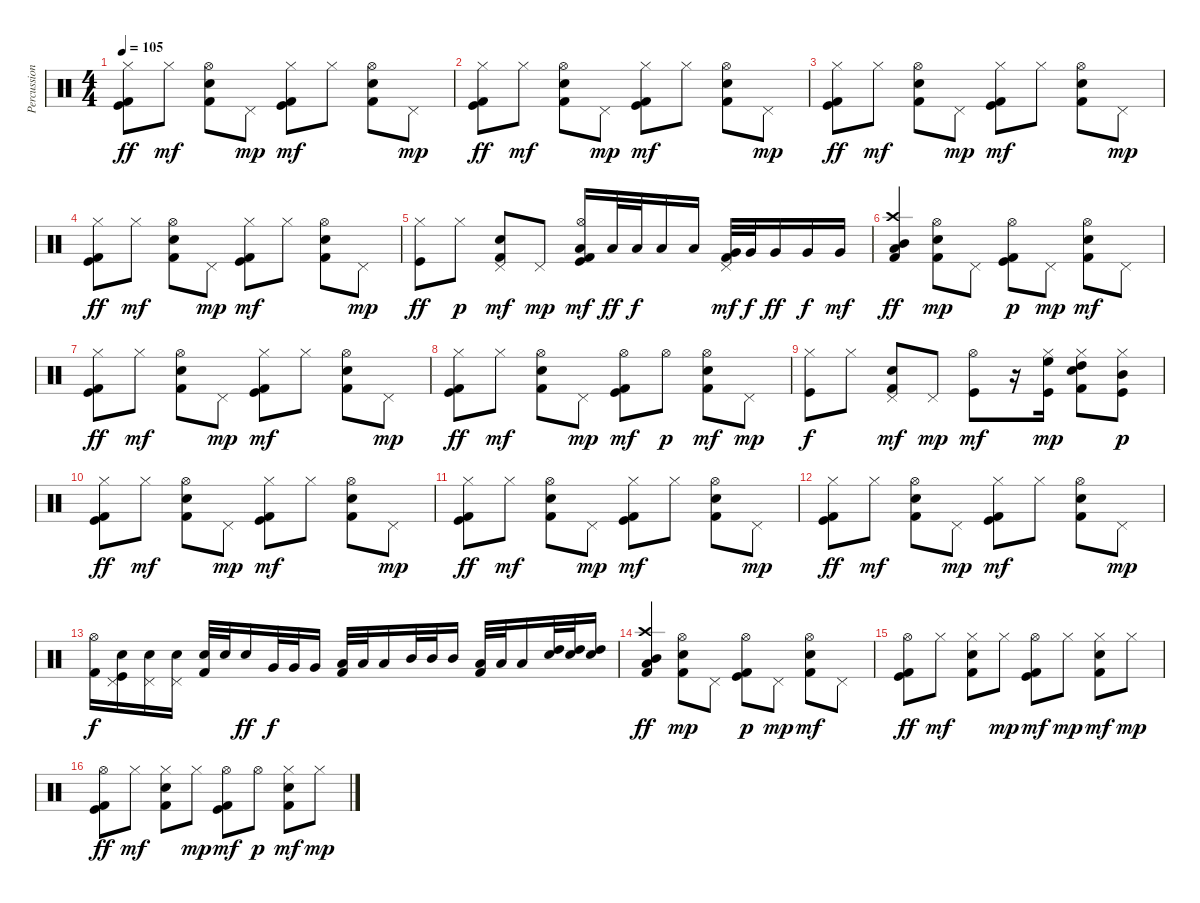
\track ("Percussion" "Percussion") {instrument percussion}
\staff {score}
\articulation defaults
\ts (4 4)
\tempo 105
\clef neutral
\ks c
("Hi-Hat (closed)" "Kick (hit)" "Kick (hit) 2").8{dy ff} "Hi-Hat (closed)".8{dy mf} ("Electric Snare (hit)" "Hi-Hat (open)" "Kick (hit) 2").8 "Pedal Hi-Hat (hit)".8{dy mp} ("Hi-Hat (closed)" "Kick (hit)" "Kick (hit) 2").8{dy mf} "Hi-Hat (closed)".8 ("Electric Snare (hit)" "Hi-Hat (open)" "Kick (hit) 2").8 "Pedal Hi-Hat (hit)".8{dy mp} |
("Hi-Hat (closed)" "Kick (hit)" "Kick (hit) 2").8{dy ff} "Hi-Hat (closed)".8{dy mf} ("Electric Snare (hit)" "Hi-Hat (open)" "Kick (hit) 2").8 "Pedal Hi-Hat (hit)".8{dy mp} ("Hi-Hat (closed)" "Kick (hit)" "Kick (hit) 2").8{dy mf} "Hi-Hat (closed)".8 ("Electric Snare (hit)" "Hi-Hat (open)" "Kick (hit) 2").8 "Pedal Hi-Hat (hit)".8{dy mp} |
("Hi-Hat (closed)" "Kick (hit)" "Kick (hit) 2").8{dy ff} "Hi-Hat (closed)".8{dy mf} ("Electric Snare (hit)" "Hi-Hat (open)" "Kick (hit) 2").8 "Pedal Hi-Hat (hit)".8{dy mp} ("Hi-Hat (closed)" "Kick (hit)" "Kick (hit) 2").8{dy mf} "Hi-Hat (closed)".8 ("Electric Snare (hit)" "Hi-Hat (open)" "Kick (hit) 2").8 "Pedal Hi-Hat (hit)".8{dy mp} |
("Hi-Hat (closed)" "Kick (hit)" "Kick (hit) 2").8{dy ff} "Hi-Hat (closed)".8{dy mf} ("Electric Snare (hit)" "Hi-Hat (open)" "Kick (hit) 2").8 "Pedal Hi-Hat (hit)".8{dy mp} ("Hi-Hat (closed)" "Kick (hit)" "Kick (hit) 2").8{dy mf} "Hi-Hat (closed)".8 ("Electric Snare (hit)" "Hi-Hat (open)" "Kick (hit) 2").8 "Pedal Hi-Hat (hit)".8{dy mp} |
("Hi-Hat (closed)" "Kick (hit)").8{dy ff} "Hi-Hat (closed)".8{dy p} ("Electric Snare (hit)" "Pedal Hi-Hat (hit)" "Kick (hit) 2").8{dy mf} "Pedal Hi-Hat (hit)".8{dy mp} ("Low Tom (hit)" "Hi-Hat (open)" "Kick (hit)" "Kick (hit) 2").16{dy mf} "Low Tom (hit)".32{dy ff} "Low Tom (hit)".32{dy f} "Low Tom (hit)".16 "Low Tom (hit)".16 ("Very Low Tom (hit)" "Pedal Hi-Hat (hit)" "Kick (hit) 2").32{dy mf} "Very Low Tom (hit)".32{dy f} "Very Low Tom (hit)".16{dy ff} "Very Low Tom (hit)".16{dy f} "Very Low Tom (hit)".16{dy mf} |
("Crash high (hit)" "Mid Tom (hit)" "Low Floor Tom (hit)" "Kick (hit) 2").4{dy ff} ("Electric Snare (hit)" "Hi-Hat (open)" "Kick (hit) 2").8{dy mp} "Pedal Hi-Hat (hit)".8 ("Hi-Hat (open)" "Kick (hit)" "Kick (hit) 2").8{dy p} "Pedal Hi-Hat (hit)".8{dy mp} ("Electric Snare (hit)" "Hi-Hat (open)" "Kick (hit) 2").8{dy mf} "Pedal Hi-Hat (hit)".8 |
("Hi-Hat (closed)" "Kick (hit)" "Kick (hit) 2").8{dy ff} "Hi-Hat (closed)".8{dy mf} ("Electric Snare (hit)" "Hi-Hat (open)" "Kick (hit) 2").8 "Pedal Hi-Hat (hit)".8{dy mp} ("Hi-Hat (closed)" "Kick (hit)" "Kick (hit) 2").8{dy mf} "Hi-Hat (closed)".8 ("Electric Snare (hit)" "Hi-Hat (open)" "Kick (hit) 2").8 "Pedal Hi-Hat (hit)".8{dy mp} |
("Hi-Hat (closed)" "Kick (hit)" "Kick (hit) 2").8{dy ff} "Hi-Hat (closed)".8{dy mf} ("Electric Snare (hit)" "Hi-Hat (open)" "Kick (hit) 2").8 "Pedal Hi-Hat (hit)".8{dy mp} ("Hi-Hat (open)" "Kick (hit)" "Kick (hit) 2").8{dy mf} "Hi-Hat (open)".8{dy p} ("Electric Snare (hit)" "Hi-Hat (open)" "Kick (hit) 2").8{dy mf} "Pedal Hi-Hat (hit)".8{dy mp} |
("Hi-Hat (closed)" "Kick (hit)").8{dy f} "Hi-Hat (closed)".8 ("Electric Snare (hit)" "Pedal Hi-Hat (hit)" "Kick (hit) 2").8{dy mf} "Pedal Hi-Hat (hit)".8{dy mp} ("Hi-Hat (open)" "Kick (hit)").8{dy mf} r.16 ("Hi-Hat (closed)" "High Floor Tom (hit)" "Kick (hit)").16{dy mp} ("Electric Snare (hit)" "Hi-Hat (closed)" "High Tom (hit)" "Kick (hit) 2").8 ("Hi-Hat (closed)" "Mid Tom (hit)" "Kick (hit)").8{dy p} |
("Hi-Hat (closed)" "Kick (hit)" "Kick (hit) 2").8{dy ff} "Hi-Hat (closed)".8{dy mf} ("Electric Snare (hit)" "Hi-Hat (open)" "Kick (hit) 2").8 "Pedal Hi-Hat (hit)".8{dy mp} ("Hi-Hat (closed)" "Kick (hit)" "Kick (hit) 2").8{dy mf} "Hi-Hat (closed)".8 ("Electric Snare (hit)" "Hi-Hat (open)" "Kick (hit) 2").8 "Pedal Hi-Hat (hit)".8{dy mp} |
("Hi-Hat (closed)" "Kick (hit)" "Kick (hit) 2").8{dy ff} "Hi-Hat (closed)".8{dy mf} ("Electric Snare (hit)" "Hi-Hat (open)" "Kick (hit) 2").8 "Pedal Hi-Hat (hit)".8{dy mp} ("Hi-Hat (closed)" "Kick (hit)" "Kick (hit) 2").8{dy mf} "Hi-Hat (closed)".8 ("Electric Snare (hit)" "Hi-Hat (open)" "Kick (hit) 2").8 "Pedal Hi-Hat (hit)".8{dy mp} |
("Hi-Hat (closed)" "Kick (hit)" "Kick (hit) 2").8{dy ff} "Hi-Hat (closed)".8{dy mf} ("Electric Snare (hit)" "Hi-Hat (open)" "Kick (hit) 2").8 "Pedal Hi-Hat (hit)".8{dy mp} ("Hi-Hat (closed)" "Kick (hit)" "Kick (hit) 2").8{dy mf} "Hi-Hat (closed)".8 ("Electric Snare (hit)" "Hi-Hat (open)" "Kick (hit) 2").8 "Pedal Hi-Hat (hit)".8{dy mp} |
("Hi-Hat (open)" "Kick (hit) 2").16{dy f} ("Pedal Hi-Hat (hit)" "Electric Snare (hit)" "Kick (hit)").16 ("Pedal Hi-Hat (hit)" "Electric Snare (hit)").16 ("Pedal Hi-Hat (hit)" "Electric Snare (hit)").16 ("Electric Snare (hit)" "Kick (hit) 2").32 "Electric Snare (hit)".32 "Electric Snare (hit)".16{dy ff} "Very Low Tom (hit)".32{dy f} "Very Low Tom (hit)".32 "Very Low Tom (hit)".16 ("Low Tom (hit)" "Kick (hit) 2").32 "Low Tom (hit)".32 "Low Tom (hit)".16 "Mid Tom (hit)".32 "Mid Tom (hit)".32 "Mid Tom (hit)".16 ("Low Floor Tom (hit)" "Kick (hit) 2").32 "Low Floor Tom (hit)".32 "Low Floor Tom (hit)".16 ("High Tom (hit)" "Electric Snare (hit)").32 ("High Tom (hit)" "Electric Snare (hit)").32 ("High Tom (hit)" "Electric Snare (hit)").16 |
("Crash high (hit)" "Mid Tom (hit)" "Low Floor Tom (hit)" "Kick (hit) 2").4{dy ff} ("Electric Snare (hit)" "Hi-Hat (open)" "Kick (hit) 2").8{dy mp} "Pedal Hi-Hat (hit)".8 ("Hi-Hat (open)" "Kick (hit)" "Kick (hit) 2").8{dy p} "Pedal Hi-Hat (hit)".8{dy mp} ("Electric Snare (hit)" "Hi-Hat (open)" "Kick (hit) 2").8{dy mf} "Pedal Hi-Hat (hit)".8 |
("Hi-Hat (open)" "Kick (hit)" "Kick (hit) 2").8{dy ff} "Hi-Hat (closed)".8{dy mf} ("Electric Snare (hit)" "Hi-Hat (closed)" "Kick (hit) 2").8 "Hi-Hat (closed)".8{dy mp} ("Hi-Hat (open)" "Kick (hit)" "Kick (hit) 2").8{dy mf} "Hi-Hat (closed)".8{dy mp} ("Electric Snare (hit)" "Hi-Hat (closed)" "Kick (hit) 2").8{dy mf} "Hi-Hat (closed)".8{dy mp} |
("Hi-Hat (open)" "Kick (hit)" "Kick (hit) 2").8{dy ff} "Hi-Hat (closed)".8{dy mf} ("Electric Snare (hit)" "Hi-Hat (closed)" "Kick (hit) 2").8 "Hi-Hat (closed)".8{dy mp} ("Hi-Hat (open)" "Kick (hit)" "Kick (hit) 2").8{dy mf} "Hi-Hat (open)".8{dy p} ("Electric Snare (hit)" "Hi-Hat (closed)" "Kick (hit) 2").8{dy mf} "Hi-Hat (closed)".8{dy mp}
